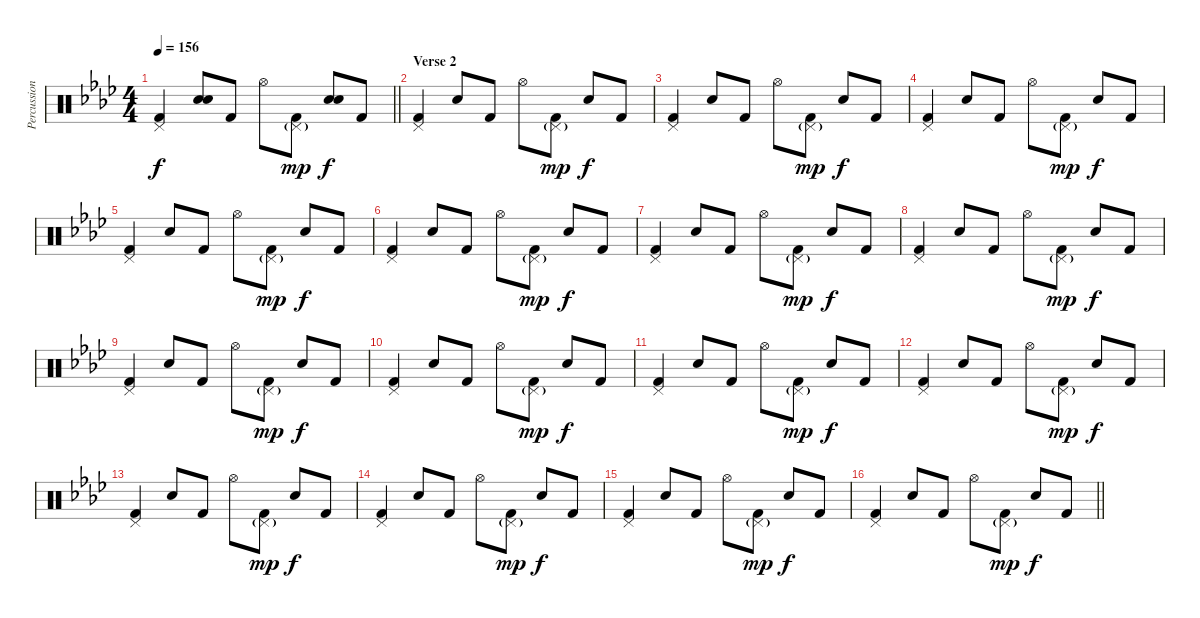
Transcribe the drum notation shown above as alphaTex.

\track ("Percussion" "Percussion") {instrument percussion}
\staff {score}
\articulation defaults
\ts (4 4)
\tempo 156
\clef neutral
\barLineRight lightlight
\ks fminor
("Pedal Hi-Hat (hit)" "Kick (hit) 2").4{dy f} ("Hand Clap (hit)" "Electric Snare (hit)").8 "Kick (hit) 2".8 "Hi-Hat (open)".8 ("Pedal Hi-Hat (hit)"{g} "Kick (hit) 2").8{dy mp} ("Hand Clap (hit)" "Electric Snare (hit)").8{dy f} "Kick (hit) 2".8 |
\section ("" "Verse 2")
("Pedal Hi-Hat (hit)" "Kick (hit) 2").4 "Electric Snare (hit)".8 "Kick (hit) 2".8 "Hi-Hat (open)".8 ("Pedal Hi-Hat (hit)"{g} "Kick (hit) 2").8{dy mp} "Electric Snare (hit)".8{dy f} "Kick (hit) 2".8 |
("Pedal Hi-Hat (hit)" "Kick (hit) 2").4 "Electric Snare (hit)".8 "Kick (hit) 2".8 "Hi-Hat (open)".8 ("Pedal Hi-Hat (hit)"{g} "Kick (hit) 2").8{dy mp} "Electric Snare (hit)".8{dy f} "Kick (hit) 2".8 |
("Pedal Hi-Hat (hit)" "Kick (hit) 2").4 "Electric Snare (hit)".8 "Kick (hit) 2".8 "Hi-Hat (open)".8 ("Pedal Hi-Hat (hit)"{g} "Kick (hit) 2").8{dy mp} "Electric Snare (hit)".8{dy f} "Kick (hit) 2".8 |
("Pedal Hi-Hat (hit)" "Kick (hit) 2").4 "Electric Snare (hit)".8 "Kick (hit) 2".8 "Hi-Hat (open)".8 ("Pedal Hi-Hat (hit)"{g} "Kick (hit) 2").8{dy mp} "Electric Snare (hit)".8{dy f} "Kick (hit) 2".8 |
("Pedal Hi-Hat (hit)" "Kick (hit) 2").4 "Electric Snare (hit)".8 "Kick (hit) 2".8 "Hi-Hat (open)".8 ("Pedal Hi-Hat (hit)"{g} "Kick (hit) 2").8{dy mp} "Electric Snare (hit)".8{dy f} "Kick (hit) 2".8 |
("Pedal Hi-Hat (hit)" "Kick (hit) 2").4 "Electric Snare (hit)".8 "Kick (hit) 2".8 "Hi-Hat (open)".8 ("Pedal Hi-Hat (hit)"{g} "Kick (hit) 2").8{dy mp} "Electric Snare (hit)".8{dy f} "Kick (hit) 2".8 |
("Pedal Hi-Hat (hit)" "Kick (hit) 2").4 "Electric Snare (hit)".8 "Kick (hit) 2".8 "Hi-Hat (open)".8 ("Pedal Hi-Hat (hit)"{g} "Kick (hit) 2").8{dy mp} "Electric Snare (hit)".8{dy f} "Kick (hit) 2".8 |
("Pedal Hi-Hat (hit)" "Kick (hit) 2").4 "Electric Snare (hit)".8 "Kick (hit) 2".8 "Hi-Hat (open)".8 ("Pedal Hi-Hat (hit)"{g} "Kick (hit) 2").8{dy mp} "Electric Snare (hit)".8{dy f} "Kick (hit) 2".8 |
("Pedal Hi-Hat (hit)" "Kick (hit) 2").4 "Electric Snare (hit)".8 "Kick (hit) 2".8 "Hi-Hat (open)".8 ("Pedal Hi-Hat (hit)"{g} "Kick (hit) 2").8{dy mp} "Electric Snare (hit)".8{dy f} "Kick (hit) 2".8 |
("Pedal Hi-Hat (hit)" "Kick (hit) 2").4 "Electric Snare (hit)".8 "Kick (hit) 2".8 "Hi-Hat (open)".8 ("Pedal Hi-Hat (hit)"{g} "Kick (hit) 2").8{dy mp} "Electric Snare (hit)".8{dy f} "Kick (hit) 2".8 |
("Pedal Hi-Hat (hit)" "Kick (hit) 2").4 "Electric Snare (hit)".8 "Kick (hit) 2".8 "Hi-Hat (open)".8 ("Pedal Hi-Hat (hit)"{g} "Kick (hit) 2").8{dy mp} "Electric Snare (hit)".8{dy f} "Kick (hit) 2".8 |
("Pedal Hi-Hat (hit)" "Kick (hit) 2").4 "Electric Snare (hit)".8 "Kick (hit) 2".8 "Hi-Hat (open)".8 ("Pedal Hi-Hat (hit)"{g} "Kick (hit) 2").8{dy mp} "Electric Snare (hit)".8{dy f} "Kick (hit) 2".8 |
("Pedal Hi-Hat (hit)" "Kick (hit) 2").4 "Electric Snare (hit)".8 "Kick (hit) 2".8 "Hi-Hat (open)".8 ("Pedal Hi-Hat (hit)"{g} "Kick (hit) 2").8{dy mp} "Electric Snare (hit)".8{dy f} "Kick (hit) 2".8 |
("Pedal Hi-Hat (hit)" "Kick (hit) 2").4 "Electric Snare (hit)".8 "Kick (hit) 2".8 "Hi-Hat (open)".8 ("Pedal Hi-Hat (hit)"{g} "Kick (hit) 2").8{dy mp} "Electric Snare (hit)".8{dy f} "Kick (hit) 2".8 |
\barLineRight lightlight
("Pedal Hi-Hat (hit)" "Kick (hit) 2").4 "Electric Snare (hit)".8 "Kick (hit) 2".8 "Hi-Hat (open)".8 ("Pedal Hi-Hat (hit)"{g} "Kick (hit) 2").8{dy mp} "Electric Snare (hit)".8{dy f} "Kick (hit) 2".8
